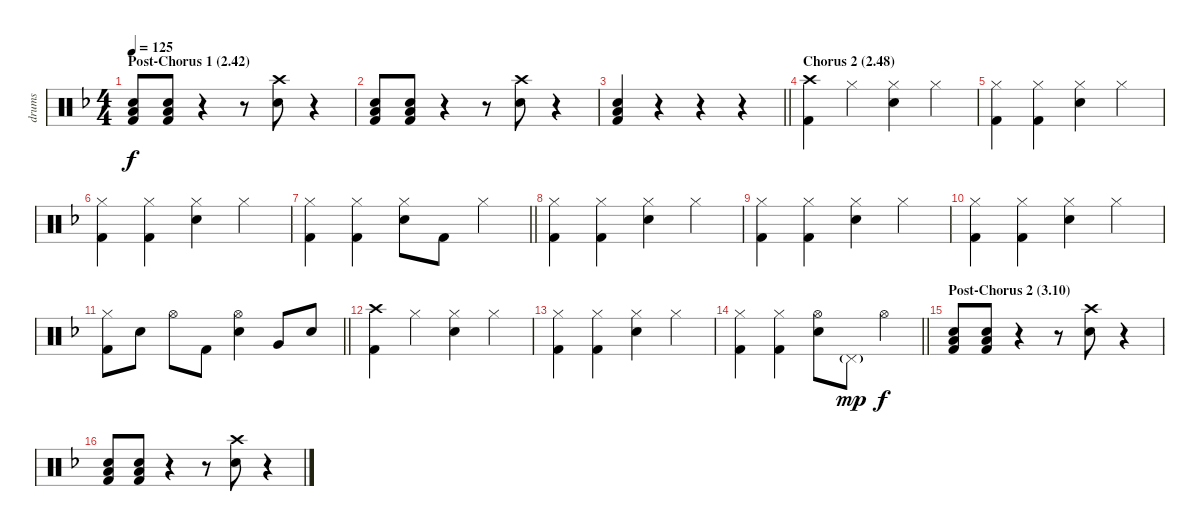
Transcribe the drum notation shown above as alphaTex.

\track ("drums" "drums") {instrument percussion}
\staff {score}
\articulation defaults
\ts (4 4)
\section ("" "Post-Chorus 1 (2.42)")
\tempo 125
\clef neutral
\ks f
("Low Tom (hit)" "Electric Snare (hit)" "Kick (hit) 2").8{dy f} ("Low Tom (hit)" "Electric Snare (hit)" "Kick (hit) 2").8 r.4 r.8 ("Crash high (hit)" "Electric Snare (hit)").8 r.4 |
("Low Tom (hit)" "Electric Snare (hit)" "Kick (hit) 2").8 ("Low Tom (hit)" "Electric Snare (hit)" "Kick (hit) 2").8 r.4 r.8 ("Crash high (hit)" "Electric Snare (hit)").8 r.4 |
\barLineRight lightlight
("Low Tom (hit)" "Electric Snare (hit)" "Kick (hit) 2").4 r.4 r.4 r.4 |
\section ("" "Chorus 2 (2.48)")
("Crash high (hit)" "Kick (hit) 2").4 "Hi-Hat (closed)".4 ("Hi-Hat (closed)" "Electric Snare (hit)").4 "Hi-Hat (closed)".4 |
("Hi-Hat (closed)" "Kick (hit) 2").4 ("Hi-Hat (closed)" "Kick (hit) 2").4 ("Hi-Hat (closed)" "Electric Snare (hit)").4 "Hi-Hat (closed)".4 |
("Hi-Hat (closed)" "Kick (hit) 2").4 ("Hi-Hat (closed)" "Kick (hit) 2").4 ("Hi-Hat (closed)" "Electric Snare (hit)").4 "Hi-Hat (closed)".4 |
\barLineRight lightlight
("Hi-Hat (closed)" "Kick (hit) 2").4 ("Hi-Hat (closed)" "Kick (hit) 2").4 ("Hi-Hat (closed)" "Electric Snare (hit)").8 "Kick (hit) 2".8 "Hi-Hat (closed)".4 |
("Hi-Hat (closed)" "Kick (hit) 2").4 ("Hi-Hat (closed)" "Kick (hit) 2").4 ("Hi-Hat (closed)" "Electric Snare (hit)").4 "Hi-Hat (closed)".4 |
("Hi-Hat (closed)" "Kick (hit) 2").4 ("Hi-Hat (closed)" "Kick (hit) 2").4 ("Hi-Hat (closed)" "Electric Snare (hit)").4 "Hi-Hat (closed)".4 |
("Hi-Hat (closed)" "Kick (hit) 2").4 ("Hi-Hat (closed)" "Kick (hit) 2").4 ("Hi-Hat (closed)" "Electric Snare (hit)").4 "Hi-Hat (closed)".4 |
\barLineRight lightlight
("Hi-Hat (closed)" "Kick (hit) 2").8 "Electric Snare (hit)".8 "Hi-Hat (open)".8 "Kick (hit) 2".8 ("Hi-Hat (open)" "Electric Snare (hit)").4 "Very Low Tom (hit)".8 "Electric Snare (hit)".8 |
("Crash high (hit)" "Kick (hit) 2").4 "Hi-Hat (closed)".4 ("Hi-Hat (closed)" "Electric Snare (hit)").4 "Hi-Hat (closed)".4 |
("Hi-Hat (closed)" "Kick (hit) 2").4 ("Hi-Hat (closed)" "Kick (hit) 2").4 ("Hi-Hat (closed)" "Electric Snare (hit)").4 "Hi-Hat (closed)".4 |
\barLineRight lightlight
("Hi-Hat (closed)" "Kick (hit) 2").4 ("Hi-Hat (closed)" "Kick (hit) 2").4 ("Hi-Hat (open)" "Electric Snare (hit)").8 "Pedal Hi-Hat (hit)"{g}.8{dy mp} "Hi-Hat (open)".4{dy f} |
\section ("" "Post-Chorus 2 (3.10)")
("Low Tom (hit)" "Electric Snare (hit)" "Kick (hit) 2").8 ("Low Tom (hit)" "Electric Snare (hit)" "Kick (hit) 2").8 r.4 r.8 ("Crash high (hit)" "Electric Snare (hit)").8 r.4 |
("Low Tom (hit)" "Electric Snare (hit)" "Kick (hit) 2").8 ("Low Tom (hit)" "Electric Snare (hit)" "Kick (hit) 2").8 r.4 r.8 ("Crash high (hit)" "Electric Snare (hit)").8 r.4
